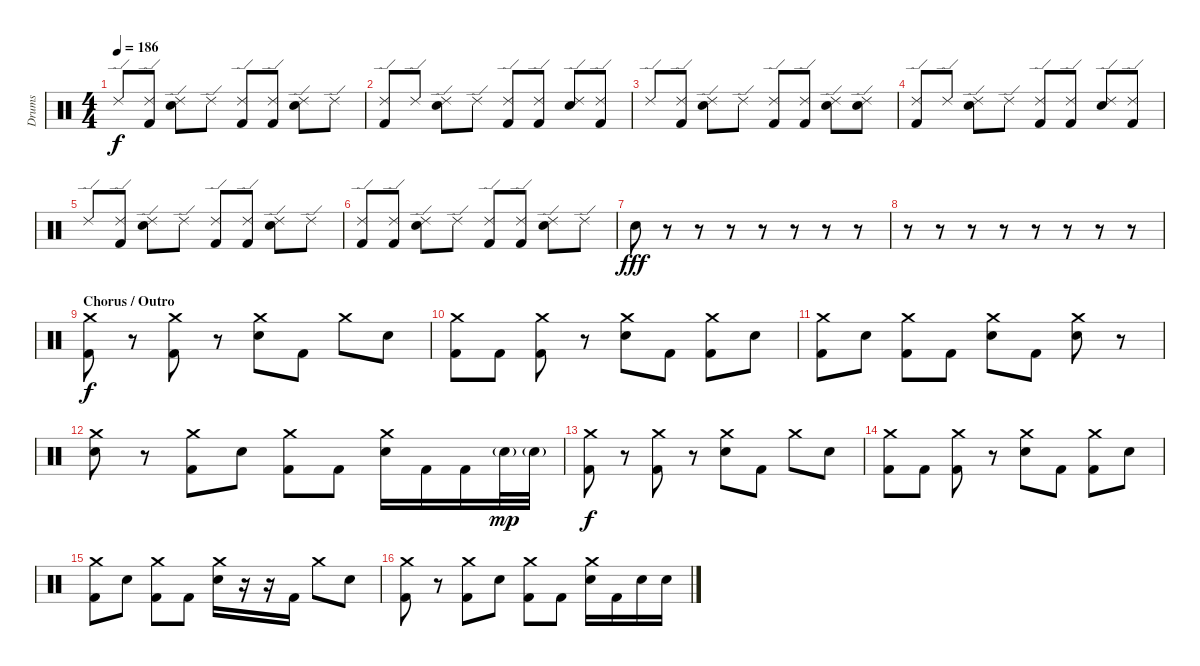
\track ("Drums" "Drums") {instrument percussion}
\staff {score}
\articulation defaults
\ts (4 4)
\tempo 186
\clef neutral
\ks c "Ride (edge) 2".8{dy f}
("Ride (edge) 2" "Kick (hit) 2").8 ("Ride (edge) 2" "Electric Snare (hit)").8 "Ride (edge) 2".8 ("Ride (edge) 2" "Kick (hit) 2").8 ("Ride (edge) 2" "Kick (hit) 2").8 ("Ride (edge) 2" "Electric Snare (hit)").8 "Ride (edge) 2".8 |
("Ride (edge) 2" "Kick (hit) 2").8 "Ride (edge) 2".8 ("Ride (edge) 2" "Electric Snare (hit)").8 "Ride (edge) 2".8 ("Ride (edge) 2" "Kick (hit) 2").8 ("Ride (edge) 2" "Kick (hit) 2").8 ("Ride (edge) 2" "Electric Snare (hit)").8 ("Ride (edge) 2" "Kick (hit) 2").8 |
"Ride (edge) 2".8 ("Ride (edge) 2" "Kick (hit) 2").8 ("Ride (edge) 2" "Electric Snare (hit)").8 "Ride (edge) 2".8 ("Ride (edge) 2" "Kick (hit) 2").8 ("Ride (edge) 2" "Kick (hit) 2").8 ("Ride (edge) 2" "Electric Snare (hit)").8 ("Ride (edge) 2" "Electric Snare (hit)").8 |
("Ride (edge) 2" "Kick (hit) 2").8 "Ride (edge) 2".8 ("Ride (edge) 2" "Electric Snare (hit)").8 "Ride (edge) 2".8 ("Ride (edge) 2" "Kick (hit) 2").8 ("Ride (edge) 2" "Kick (hit) 2").8 ("Ride (edge) 2" "Electric Snare (hit)").8 ("Ride (edge) 2" "Kick (hit) 2").8 |
"Ride (edge) 2".8 ("Ride (edge) 2" "Kick (hit) 2").8 ("Ride (edge) 2" "Electric Snare (hit)").8 "Ride (edge) 2".8 ("Ride (edge) 2" "Kick (hit) 2").8 ("Ride (edge) 2" "Kick (hit) 2").8 ("Ride (edge) 2" "Electric Snare (hit)").8 "Ride (edge) 2".8 |
("Ride (edge) 2" "Kick (hit) 2").8 ("Ride (edge) 2" "Kick (hit) 2").8 ("Ride (edge) 2" "Electric Snare (hit)").8 "Ride (edge) 2".8 ("Ride (edge) 2" "Kick (hit) 2").8 ("Ride (edge) 2" "Kick (hit) 2").8 ("Ride (edge) 2" "Electric Snare (hit)").8 "Ride (edge) 2".8 |
"Electric Snare (hit)".8{dy fff} r.8 r.8 r.8 r.8 r.8 r.8 r.8 |
r.8 r.8 r.8 r.8 r.8 r.8 r.8 r.8 |
\section ("" "Chorus / Outro")
("Crash medium (hit)" "Kick (hit) 2").8{dy f} r.8 ("Crash medium (hit)" "Kick (hit) 2").8 r.8 ("Crash medium (hit)" "Electric Snare (hit)").8 "Kick (hit) 2".8 "Crash medium (hit)".8 "Electric Snare (hit)".8 |
("Crash medium (hit)" "Kick (hit) 2").8 "Kick (hit) 2".8 ("Crash medium (hit)" "Kick (hit) 2").8 r.8 ("Crash medium (hit)" "Electric Snare (hit)").8 "Kick (hit) 2".8 ("Crash medium (hit)" "Kick (hit) 2").8 "Electric Snare (hit)".8 |
("Crash medium (hit)" "Kick (hit) 2").8 "Electric Snare (hit)".8 ("Crash medium (hit)" "Kick (hit) 2").8 "Kick (hit) 2".8 ("Crash medium (hit)" "Electric Snare (hit)").8 "Kick (hit) 2".8 ("Crash medium (hit)" "Electric Snare (hit)").8 r.8 |
("Crash medium (hit)" "Electric Snare (hit)").8 r.8 ("Crash medium (hit)" "Kick (hit) 2").8 "Electric Snare (hit)".8 ("Crash medium (hit)" "Kick (hit) 2").8 "Kick (hit) 2".8 ("Crash medium (hit)" "Electric Snare (hit)").16 "Kick (hit) 2".16 "Kick (hit) 2".16 "Electric Snare (hit)"{g}.32{dy mp} "Electric Snare (hit)"{g}.32 |
("Crash medium (hit)" "Kick (hit) 2").8{dy f} r.8 ("Crash medium (hit)" "Kick (hit) 2").8 r.8 ("Crash medium (hit)" "Electric Snare (hit)").8 "Kick (hit) 2".8 "Crash medium (hit)".8 "Electric Snare (hit)".8 |
("Crash medium (hit)" "Kick (hit) 2").8 "Kick (hit) 2".8 ("Crash medium (hit)" "Kick (hit) 2").8 r.8 ("Crash medium (hit)" "Electric Snare (hit)").8 "Kick (hit) 2".8 ("Crash medium (hit)" "Kick (hit) 2").8 "Electric Snare (hit)".8 |
("Crash medium (hit)" "Kick (hit) 2").8 "Electric Snare (hit)".8 ("Crash medium (hit)" "Kick (hit) 2").8 "Kick (hit) 2".8 ("Crash medium (hit)" "Electric Snare (hit)").16 r.16 r.16 "Kick (hit) 2".16 "Crash medium (hit)".8 "Electric Snare (hit)".8 |
("Crash medium (hit)" "Kick (hit) 2").8 r.8 ("Crash medium (hit)" "Kick (hit) 2").8 "Electric Snare (hit)".8 ("Crash medium (hit)" "Kick (hit) 2").8 "Kick (hit) 2".8 ("Crash medium (hit)" "Electric Snare (hit)").16 "Kick (hit) 2".16 "Electric Snare (hit)".16 "Electric Snare (hit)".16
